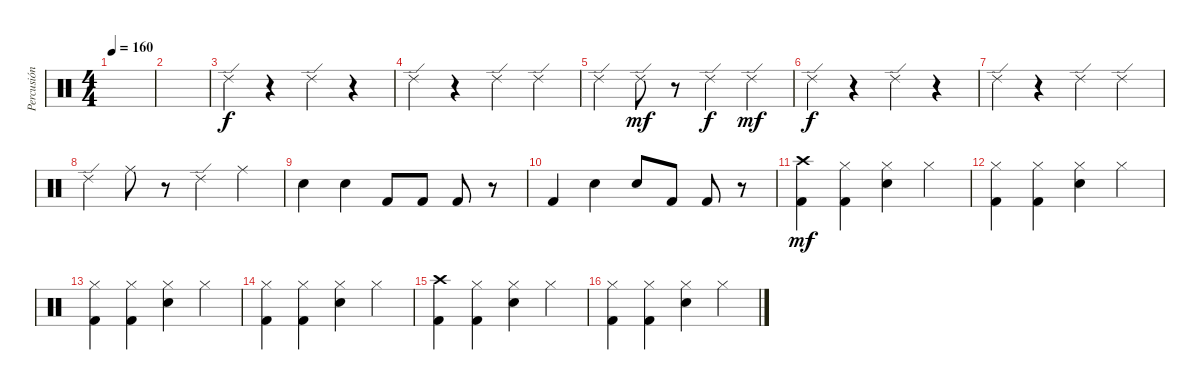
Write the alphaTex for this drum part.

\track ("Percusión" "Percusión") {instrument percussion}
\staff {score}
\articulation defaults
\ts (4 4)
\tempo 160
\clef neutral
\ks c
|
|
"Ride (edge) 2".4 r.4 "Ride (edge) 2".4 r.4 |
"Ride (edge) 2".4 r.4 "Ride (edge) 2".4 "Ride (edge) 2".4 |
"Ride (edge) 2".4 "Ride (edge) 2".8{dy mf} r.8 "Ride (edge) 2".4{dy f} "Ride (edge) 2".4{dy mf} |
"Ride (edge) 2".4{dy f} r.4 "Ride (edge) 2".4 r.4 |
"Ride (edge) 2".4 r.4 "Ride (edge) 2".4 "Ride (edge) 2".4 |
"Ride (edge) 2".4 "Ride (middle)".8 r.8 "Ride (edge) 2".4 "Ride (middle)".4 |
"Snare (hit) 2".4 "Electric Snare (hit)".4 "Kick (hit) 2".8 "Kick (hit) 2".8 "Kick (hit) 2".8 r.8 |
"Kick (hit) 2".4 "Snare (hit) 2".4 "Electric Snare (hit)".8 "Kick (hit) 2".8 "Kick (hit) 2".8 r.8 |
("Crash high (hit)" "Kick (hit) 2").4{dy mf} ("Hi-Hat (closed)" "Kick (hit) 2").4 ("Hi-Hat (closed)" "Snare (hit) 2").4 "Hi-Hat (closed)".4 |
("Hi-Hat (closed)" "Kick (hit) 2").4 ("Hi-Hat (closed)" "Kick (hit) 2").4 ("Hi-Hat (closed)" "Snare (hit) 2").4 "Hi-Hat (closed)".4 |
("Hi-Hat (closed)" "Kick (hit) 2").4 ("Hi-Hat (closed)" "Kick (hit) 2").4 ("Hi-Hat (closed)" "Snare (hit) 2").4 "Hi-Hat (closed)".4 |
("Hi-Hat (closed)" "Kick (hit) 2").4 ("Hi-Hat (closed)" "Kick (hit) 2").4 ("Hi-Hat (closed)" "Snare (hit) 2").4 "Hi-Hat (closed)".4 |
("Crash high (hit)" "Kick (hit) 2").4 ("Hi-Hat (closed)" "Kick (hit) 2").4 ("Hi-Hat (closed)" "Snare (hit) 2").4 "Hi-Hat (closed)".4 |
("Hi-Hat (closed)" "Kick (hit) 2").4 ("Hi-Hat (closed)" "Kick (hit) 2").4 ("Hi-Hat (closed)" "Snare (hit) 2").4 "Hi-Hat (closed)".4
